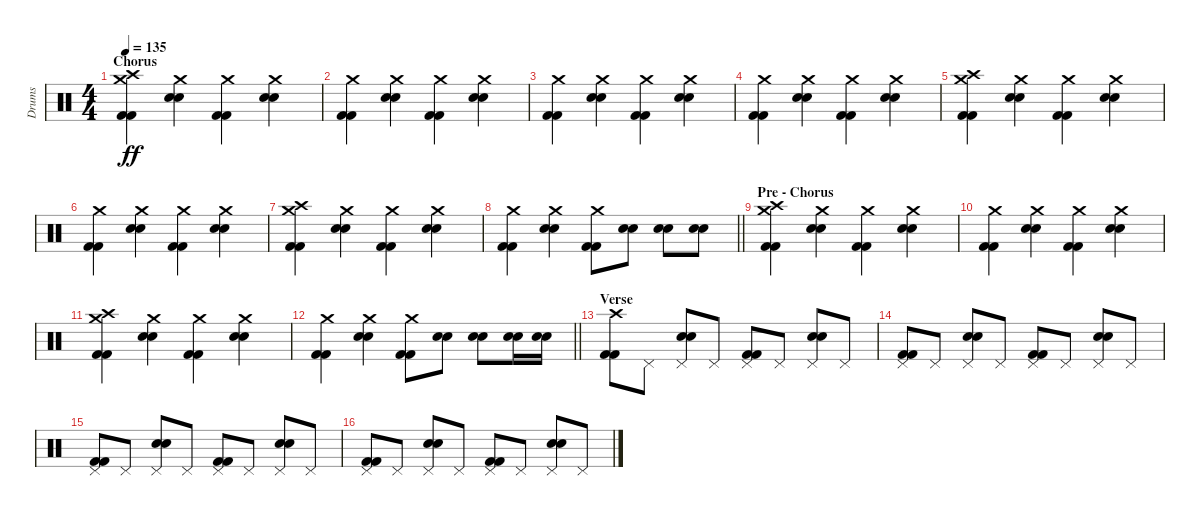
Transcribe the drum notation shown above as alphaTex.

\track ("Drums" "Drums") {instrument percussion}
\staff {score}
\articulation defaults
\ts (4 4)
\section ("" "Chorus")
\tempo 135
\clef neutral
\ks c
("Crash high (hit)" "Crash medium (hit)" "Kick (hit) 2" "Kick (hit) 2").4{dy ff} ("Crash medium (hit)" "Electric Snare (hit)" "Electric Snare (hit)").4 ("Crash medium (hit)" "Kick (hit) 2" "Kick (hit) 2").4 ("Crash medium (hit)" "Electric Snare (hit)" "Electric Snare (hit)").4 |
("Crash medium (hit)" "Kick (hit) 2" "Kick (hit) 2").4 ("Crash medium (hit)" "Electric Snare (hit)" "Electric Snare (hit)").4 ("Crash medium (hit)" "Kick (hit) 2" "Kick (hit) 2").4 ("Crash medium (hit)" "Electric Snare (hit)" "Electric Snare (hit)").4 |
("Crash medium (hit)" "Kick (hit) 2" "Kick (hit) 2").4 ("Crash medium (hit)" "Electric Snare (hit)" "Electric Snare (hit)").4 ("Crash medium (hit)" "Kick (hit) 2" "Kick (hit) 2").4 ("Crash medium (hit)" "Electric Snare (hit)" "Electric Snare (hit)").4 |
("Crash medium (hit)" "Kick (hit) 2" "Kick (hit) 2").4 ("Crash medium (hit)" "Electric Snare (hit)" "Electric Snare (hit)").4 ("Crash medium (hit)" "Kick (hit) 2" "Kick (hit) 2").4 ("Crash medium (hit)" "Electric Snare (hit)" "Electric Snare (hit)").4 |
("Crash high (hit)" "Crash medium (hit)" "Kick (hit) 2" "Kick (hit) 2").4 ("Crash medium (hit)" "Electric Snare (hit)" "Electric Snare (hit)").4 ("Crash medium (hit)" "Kick (hit) 2" "Kick (hit) 2").4 ("Crash medium (hit)" "Electric Snare (hit)" "Electric Snare (hit)").4 |
("Crash medium (hit)" "Kick (hit) 2" "Kick (hit) 2").4 ("Crash medium (hit)" "Electric Snare (hit)" "Electric Snare (hit)").4 ("Crash medium (hit)" "Kick (hit) 2" "Kick (hit) 2").4 ("Crash medium (hit)" "Electric Snare (hit)" "Electric Snare (hit)").4 |
("Crash high (hit)" "Crash medium (hit)" "Kick (hit) 2" "Kick (hit) 2").4 ("Crash medium (hit)" "Electric Snare (hit)" "Electric Snare (hit)").4 ("Crash medium (hit)" "Kick (hit) 2" "Kick (hit) 2").4 ("Crash medium (hit)" "Electric Snare (hit)" "Electric Snare (hit)").4 |
\barLineRight lightlight
("Crash medium (hit)" "Kick (hit) 2" "Kick (hit) 2").4 ("Crash medium (hit)" "Electric Snare (hit)" "Electric Snare (hit)").4 ("Crash medium (hit)" "Kick (hit) 2" "Kick (hit) 2").8 ("Electric Snare (hit)" "Electric Snare (hit)").8 ("Electric Snare (hit)" "Electric Snare (hit)").8 ("Electric Snare (hit)" "Electric Snare (hit)").8 |
\section ("" "Pre - Chorus")
("Crash high (hit)" "Crash medium (hit)" "Kick (hit) 2" "Kick (hit) 2").4 ("Crash medium (hit)" "Electric Snare (hit)" "Electric Snare (hit)").4 ("Crash medium (hit)" "Kick (hit) 2" "Kick (hit) 2").4 ("Crash medium (hit)" "Electric Snare (hit)" "Electric Snare (hit)").4 |
("Crash medium (hit)" "Kick (hit) 2" "Kick (hit) 2").4 ("Crash medium (hit)" "Electric Snare (hit)" "Electric Snare (hit)").4 ("Crash medium (hit)" "Kick (hit) 2" "Kick (hit) 2").4 ("Crash medium (hit)" "Electric Snare (hit)" "Electric Snare (hit)").4 |
("Crash high (hit)" "Crash medium (hit)" "Kick (hit) 2" "Kick (hit) 2").4 ("Crash medium (hit)" "Electric Snare (hit)" "Electric Snare (hit)").4 ("Crash medium (hit)" "Kick (hit) 2" "Kick (hit) 2").4 ("Crash medium (hit)" "Electric Snare (hit)" "Electric Snare (hit)").4 |
\barLineRight lightlight
("Crash medium (hit)" "Kick (hit) 2" "Kick (hit) 2").4 ("Crash medium (hit)" "Electric Snare (hit)" "Electric Snare (hit)").4 ("Crash medium (hit)" "Kick (hit) 2" "Kick (hit) 2").8 ("Electric Snare (hit)" "Electric Snare (hit)").8 ("Electric Snare (hit)" "Electric Snare (hit)").8 ("Electric Snare (hit)" "Electric Snare (hit)").16 ("Electric Snare (hit)" "Electric Snare (hit)").16 |
\section ("" "Verse ")
("Crash high (hit)" "Kick (hit) 2" "Kick (hit) 2").8 "Pedal Hi-Hat (hit)".8 ("Pedal Hi-Hat (hit)" "Electric Snare (hit)" "Electric Snare (hit)").8 "Pedal Hi-Hat (hit)".8 ("Pedal Hi-Hat (hit)" "Kick (hit) 2" "Kick (hit) 2").8 "Pedal Hi-Hat (hit)".8 ("Pedal Hi-Hat (hit)" "Electric Snare (hit)" "Electric Snare (hit)").8 "Pedal Hi-Hat (hit)".8 |
("Pedal Hi-Hat (hit)" "Kick (hit) 2" "Kick (hit) 2").8 "Pedal Hi-Hat (hit)".8 ("Pedal Hi-Hat (hit)" "Electric Snare (hit)" "Electric Snare (hit)").8 "Pedal Hi-Hat (hit)".8 ("Pedal Hi-Hat (hit)" "Kick (hit) 2" "Kick (hit) 2").8 "Pedal Hi-Hat (hit)".8 ("Pedal Hi-Hat (hit)" "Electric Snare (hit)" "Electric Snare (hit)").8 "Pedal Hi-Hat (hit)".8 |
("Pedal Hi-Hat (hit)" "Kick (hit) 2" "Kick (hit) 2").8 "Pedal Hi-Hat (hit)".8 ("Pedal Hi-Hat (hit)" "Electric Snare (hit)" "Electric Snare (hit)").8 "Pedal Hi-Hat (hit)".8 ("Pedal Hi-Hat (hit)" "Kick (hit) 2" "Kick (hit) 2").8 "Pedal Hi-Hat (hit)".8 ("Pedal Hi-Hat (hit)" "Electric Snare (hit)" "Electric Snare (hit)").8 "Pedal Hi-Hat (hit)".8 |
("Pedal Hi-Hat (hit)" "Kick (hit) 2" "Kick (hit) 2").8 "Pedal Hi-Hat (hit)".8 ("Pedal Hi-Hat (hit)" "Electric Snare (hit)" "Electric Snare (hit)").8 "Pedal Hi-Hat (hit)".8 ("Pedal Hi-Hat (hit)" "Kick (hit) 2" "Kick (hit) 2").8 "Pedal Hi-Hat (hit)".8 ("Pedal Hi-Hat (hit)" "Electric Snare (hit)" "Electric Snare (hit)").8 "Pedal Hi-Hat (hit)".8
